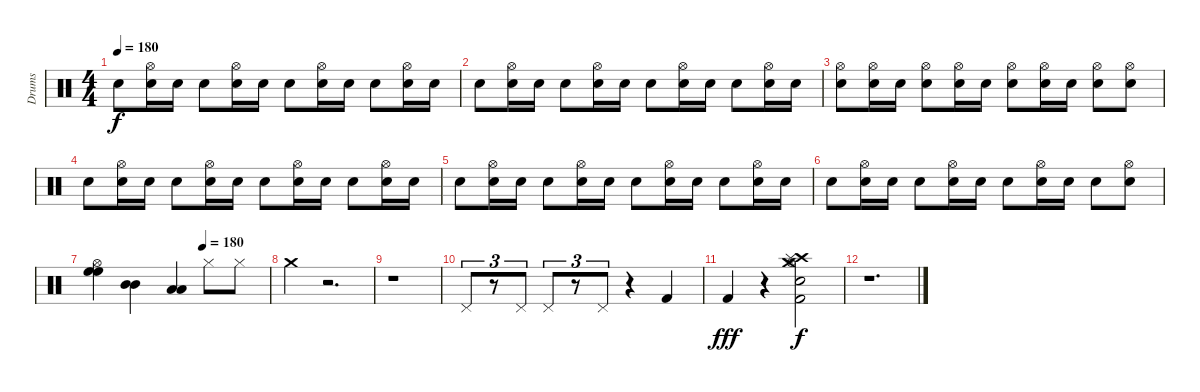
\track ("Drums" "Drums") {instrument percussion}
\staff {score}
\articulation defaults
\ts (4 4)
\tempo 180
\clef neutral
\ks c "Snare (hit) 2".8{dy f}
("Hi-Hat (open)" "Snare (hit) 2").16 "Snare (hit) 2".16 "Snare (hit) 2".8 ("Hi-Hat (open)" "Snare (hit) 2").16 "Snare (hit) 2".16 "Snare (hit) 2".8 ("Hi-Hat (open)" "Snare (hit) 2").16 "Snare (hit) 2".16 "Snare (hit) 2".8 ("Hi-Hat (open)" "Snare (hit) 2").16 "Snare (hit) 2".16 |
"Snare (hit) 2".8 ("Hi-Hat (open)" "Snare (hit) 2").16 "Snare (hit) 2".16 "Snare (hit) 2".8 ("Hi-Hat (open)" "Snare (hit) 2").16 "Snare (hit) 2".16 "Snare (hit) 2".8 ("Hi-Hat (open)" "Snare (hit) 2").16 "Snare (hit) 2".16 "Snare (hit) 2".8 ("Hi-Hat (open)" "Snare (hit) 2").16 "Snare (hit) 2".16 |
("Hi-Hat (open)" "Snare (hit) 2").8 ("Hi-Hat (open)" "Snare (hit) 2").16 "Snare (hit) 2".16 ("Hi-Hat (open)" "Snare (hit) 2").8 ("Hi-Hat (open)" "Snare (hit) 2").16 "Snare (hit) 2".16 ("Hi-Hat (open)" "Snare (hit) 2").8 ("Hi-Hat (open)" "Snare (hit) 2").16 "Snare (hit) 2".16 ("Hi-Hat (open)" "Snare (hit) 2").8 ("Hi-Hat (open)" "Snare (hit) 2").8 |
"Snare (hit) 2".8 ("Hi-Hat (open)" "Snare (hit) 2").16 "Snare (hit) 2".16 "Snare (hit) 2".8 ("Hi-Hat (open)" "Snare (hit) 2").16 "Snare (hit) 2".16 "Snare (hit) 2".8 ("Hi-Hat (open)" "Snare (hit) 2").16 "Snare (hit) 2".16 "Snare (hit) 2".8 ("Hi-Hat (open)" "Snare (hit) 2").16 "Snare (hit) 2".16 |
"Snare (hit) 2".8 ("Hi-Hat (open)" "Snare (hit) 2").16 "Snare (hit) 2".16 "Snare (hit) 2".8 ("Hi-Hat (open)" "Snare (hit) 2").16 "Snare (hit) 2".16 "Snare (hit) 2".8 ("Hi-Hat (open)" "Snare (hit) 2").16 "Snare (hit) 2".16 "Snare (hit) 2".8 ("Hi-Hat (open)" "Snare (hit) 2").16 "Snare (hit) 2".16 |
"Snare (hit) 2".8 ("Hi-Hat (open)" "Snare (hit) 2").16 "Snare (hit) 2".16 "Snare (hit) 2".8 ("Hi-Hat (open)" "Snare (hit) 2").16 "Snare (hit) 2".16 "Snare (hit) 2".8 ("Hi-Hat (open)" "Snare (hit) 2").16 "Snare (hit) 2".16 "Snare (hit) 2".8 ("Hi-Hat (open)" "Snare (hit) 2").8 |
\tempo (180 0.625)
("Hi-Hat (open)" "High Floor Tom (hit)" "High Floor Tom (hit)").4 ("Mid Tom (hit)" "Mid Tom (hit)").4 ("Low Tom (hit)" "Low Tom (hit)").4 "Hi-Hat (closed)".8 "Hi-Hat (closed)".8 |
"Crash medium (hit)".4 r.2{d} |
r.1 |
"Pedal Hi-Hat (hit)".8{tu (3 2)} r.8{tu (3 2)} "Pedal Hi-Hat (hit)".8{tu (3 2)} "Pedal Hi-Hat (hit)".8{tu (3 2)} r.8{tu (3 2)} "Pedal Hi-Hat (hit)".8{tu (3 2)} r.4 "Kick (hit) 2".4 |
"Kick (hit) 2".4{dy fff} r.4 ("Crash high (hit)" "Hi-Hat (open)" "Snare (hit) 2" "Kick (hit) 2" "Splash (hit)" "Crash medium (hit)").2{dy f} |
r.1{d}
